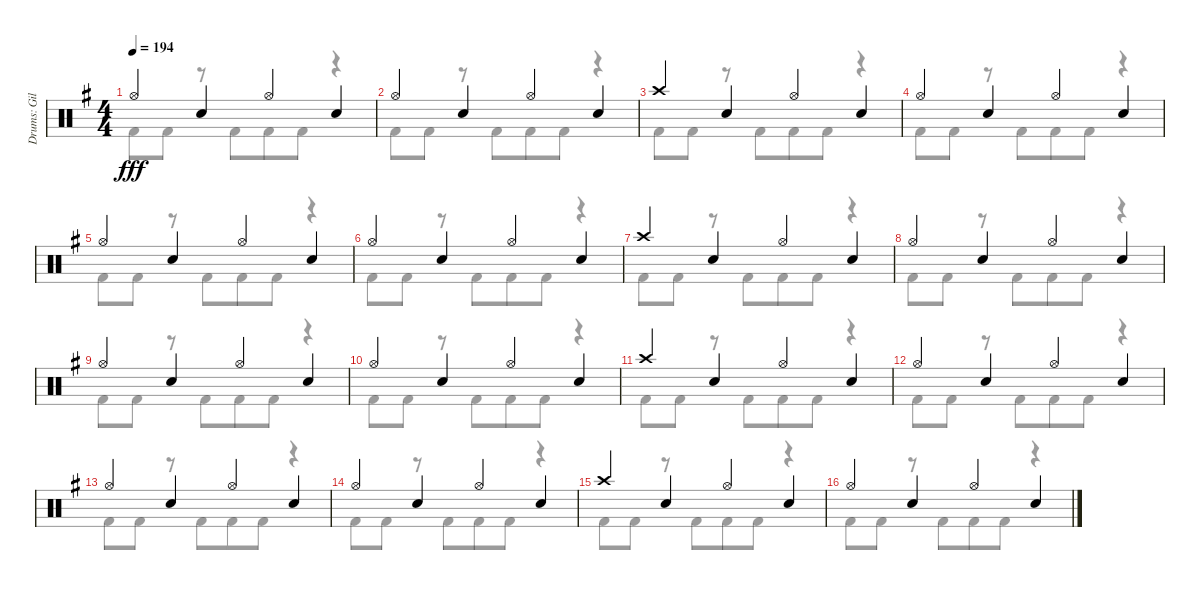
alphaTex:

\track ("Drums: Gil" "Drums: Gil") {instrument percussion}
\staff {score}
\articulation defaults
\voice
\ts (4 4)
\tempo 194
\clef neutral
\ks g "Hi-Hat (open)".4{dy fff} "Snare (hit) 2".4 "Hi-Hat (open)".4 "Snare (hit) 2".4
|
"Hi-Hat (open)".4 "Snare (hit) 2".4 "Hi-Hat (open)".4 "Snare (hit) 2".4 |
"Crash high (hit)".4 "Snare (hit) 2".4 "Hi-Hat (open)".4 "Snare (hit) 2".4 |
"Hi-Hat (open)".4 "Snare (hit) 2".4 "Hi-Hat (open)".4 "Snare (hit) 2".4 |
"Hi-Hat (open)".4 "Snare (hit) 2".4 "Hi-Hat (open)".4 "Snare (hit) 2".4 |
"Hi-Hat (open)".4 "Snare (hit) 2".4 "Hi-Hat (open)".4 "Snare (hit) 2".4 |
"Crash high (hit)".4 "Snare (hit) 2".4 "Hi-Hat (open)".4 "Snare (hit) 2".4 |
"Hi-Hat (open)".4 "Snare (hit) 2".4 "Hi-Hat (open)".4 "Snare (hit) 2".4 |
"Hi-Hat (open)".4 "Snare (hit) 2".4 "Hi-Hat (open)".4 "Snare (hit) 2".4 |
"Hi-Hat (open)".4 "Snare (hit) 2".4 "Hi-Hat (open)".4 "Snare (hit) 2".4 |
"Crash high (hit)".4 "Snare (hit) 2".4 "Hi-Hat (open)".4 "Snare (hit) 2".4 |
"Hi-Hat (open)".4 "Snare (hit) 2".4 "Hi-Hat (open)".4 "Snare (hit) 2".4 |
"Hi-Hat (open)".4 "Snare (hit) 2".4 "Hi-Hat (open)".4 "Snare (hit) 2".4 |
"Hi-Hat (open)".4 "Snare (hit) 2".4 "Hi-Hat (open)".4 "Snare (hit) 2".4 |
"Crash high (hit)".4 "Snare (hit) 2".4 "Hi-Hat (open)".4 "Snare (hit) 2".4 |
"Hi-Hat (open)".4 "Snare (hit) 2".4 "Hi-Hat (open)".4 "Snare (hit) 2".4
\voice
\clef neutral
\ottava regular
\simile none
\ks g "Kick (hit) 2".8{dy fff} "Kick (hit) 2".8
r.8 "Kick (hit) 2".8{beam merge} "Kick (hit) 2".8 "Kick (hit) 2".8 r.4 |
"Kick (hit) 2".8 "Kick (hit) 2".8 r.8 "Kick (hit) 2".8{beam merge} "Kick (hit) 2".8 "Kick (hit) 2".8 r.4 |
"Kick (hit) 2".8 "Kick (hit) 2".8 r.8 "Kick (hit) 2".8{beam merge} "Kick (hit) 2".8 "Kick (hit) 2".8 r.4 |
"Kick (hit) 2".8 "Kick (hit) 2".8 r.8 "Kick (hit) 2".8{beam merge} "Kick (hit) 2".8 "Kick (hit) 2".8 r.4 |
"Kick (hit) 2".8 "Kick (hit) 2".8 r.8 "Kick (hit) 2".8{beam merge} "Kick (hit) 2".8 "Kick (hit) 2".8 r.4 |
"Kick (hit) 2".8 "Kick (hit) 2".8 r.8 "Kick (hit) 2".8{beam merge} "Kick (hit) 2".8 "Kick (hit) 2".8 r.4 |
"Kick (hit) 2".8 "Kick (hit) 2".8 r.8 "Kick (hit) 2".8{beam merge} "Kick (hit) 2".8 "Kick (hit) 2".8 r.4 |
"Kick (hit) 2".8 "Kick (hit) 2".8 r.8 "Kick (hit) 2".8{beam merge} "Kick (hit) 2".8 "Kick (hit) 2".8 r.4 |
"Kick (hit) 2".8 "Kick (hit) 2".8 r.8 "Kick (hit) 2".8{beam merge} "Kick (hit) 2".8 "Kick (hit) 2".8 r.4 |
"Kick (hit) 2".8 "Kick (hit) 2".8 r.8 "Kick (hit) 2".8{beam merge} "Kick (hit) 2".8 "Kick (hit) 2".8 r.4 |
"Kick (hit) 2".8 "Kick (hit) 2".8 r.8 "Kick (hit) 2".8{beam merge} "Kick (hit) 2".8 "Kick (hit) 2".8 r.4 |
"Kick (hit) 2".8 "Kick (hit) 2".8 r.8 "Kick (hit) 2".8{beam merge} "Kick (hit) 2".8 "Kick (hit) 2".8 r.4 |
"Kick (hit) 2".8 "Kick (hit) 2".8 r.8 "Kick (hit) 2".8{beam merge} "Kick (hit) 2".8 "Kick (hit) 2".8 r.4 |
"Kick (hit) 2".8 "Kick (hit) 2".8 r.8 "Kick (hit) 2".8{beam merge} "Kick (hit) 2".8 "Kick (hit) 2".8 r.4 |
"Kick (hit) 2".8 "Kick (hit) 2".8 r.8 "Kick (hit) 2".8{beam merge} "Kick (hit) 2".8 "Kick (hit) 2".8 r.4 |
"Kick (hit) 2".8 "Kick (hit) 2".8 r.8 "Kick (hit) 2".8{beam merge} "Kick (hit) 2".8 "Kick (hit) 2".8 r.4
